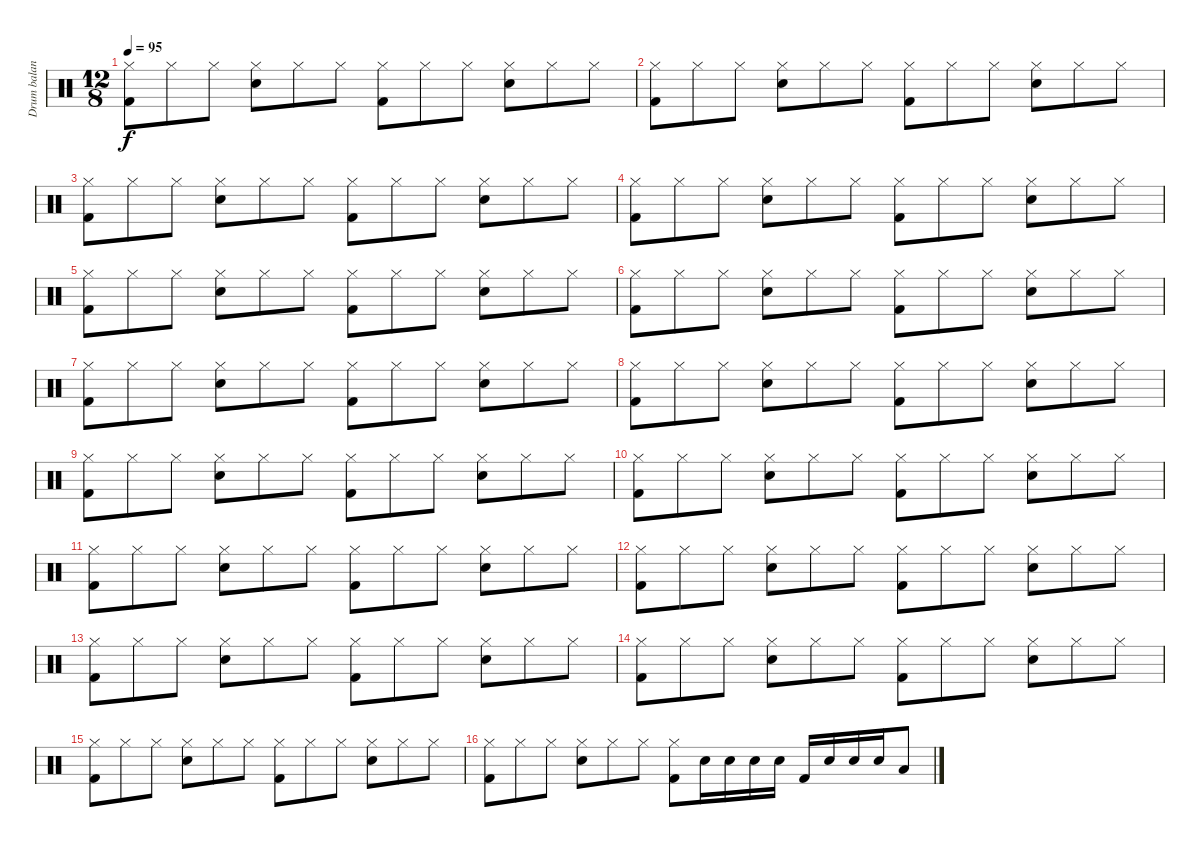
\track ("Drum balance help" "Drum balan") {instrument percussion}
\staff {score}
\articulation defaults
\ts (12 8)
\tempo 95
\clef neutral
\ks c
("Kick (hit) 2" "Hi-Hat (closed)").8{dy f} "Hi-Hat (closed)".8 "Hi-Hat (closed)".8 ("Snare (hit) 2" "Hi-Hat (closed)").8 "Hi-Hat (closed)".8 "Hi-Hat (closed)".8 ("Kick (hit) 2" "Hi-Hat (closed)").8 "Hi-Hat (closed)".8 "Hi-Hat (closed)".8 ("Snare (hit) 2" "Hi-Hat (closed)").8 "Hi-Hat (closed)".8 "Hi-Hat (closed)".8 |
("Kick (hit) 2" "Hi-Hat (closed)").8 "Hi-Hat (closed)".8 "Hi-Hat (closed)".8 ("Snare (hit) 2" "Hi-Hat (closed)").8 "Hi-Hat (closed)".8 "Hi-Hat (closed)".8 ("Kick (hit) 2" "Hi-Hat (closed)").8 "Hi-Hat (closed)".8 "Hi-Hat (closed)".8 ("Snare (hit) 2" "Hi-Hat (closed)").8 "Hi-Hat (closed)".8 "Hi-Hat (closed)".8 |
("Kick (hit) 2" "Hi-Hat (closed)").8 "Hi-Hat (closed)".8 "Hi-Hat (closed)".8 ("Snare (hit) 2" "Hi-Hat (closed)").8 "Hi-Hat (closed)".8 "Hi-Hat (closed)".8 ("Kick (hit) 2" "Hi-Hat (closed)").8 "Hi-Hat (closed)".8 "Hi-Hat (closed)".8 ("Snare (hit) 2" "Hi-Hat (closed)").8 "Hi-Hat (closed)".8 "Hi-Hat (closed)".8 |
("Kick (hit) 2" "Hi-Hat (closed)").8 "Hi-Hat (closed)".8 "Hi-Hat (closed)".8 ("Snare (hit) 2" "Hi-Hat (closed)").8 "Hi-Hat (closed)".8 "Hi-Hat (closed)".8 ("Kick (hit) 2" "Hi-Hat (closed)").8 "Hi-Hat (closed)".8 "Hi-Hat (closed)".8 ("Snare (hit) 2" "Hi-Hat (closed)").8 "Hi-Hat (closed)".8 "Hi-Hat (closed)".8 |
("Kick (hit) 2" "Hi-Hat (closed)").8 "Hi-Hat (closed)".8 "Hi-Hat (closed)".8 ("Snare (hit) 2" "Hi-Hat (closed)").8 "Hi-Hat (closed)".8 "Hi-Hat (closed)".8 ("Kick (hit) 2" "Hi-Hat (closed)").8 "Hi-Hat (closed)".8 "Hi-Hat (closed)".8 ("Snare (hit) 2" "Hi-Hat (closed)").8 "Hi-Hat (closed)".8 "Hi-Hat (closed)".8 |
("Kick (hit) 2" "Hi-Hat (closed)").8 "Hi-Hat (closed)".8 "Hi-Hat (closed)".8 ("Snare (hit) 2" "Hi-Hat (closed)").8 "Hi-Hat (closed)".8 "Hi-Hat (closed)".8 ("Kick (hit) 2" "Hi-Hat (closed)").8 "Hi-Hat (closed)".8 "Hi-Hat (closed)".8 ("Snare (hit) 2" "Hi-Hat (closed)").8 "Hi-Hat (closed)".8 "Hi-Hat (closed)".8 |
("Kick (hit) 2" "Hi-Hat (closed)").8 "Hi-Hat (closed)".8 "Hi-Hat (closed)".8 ("Snare (hit) 2" "Hi-Hat (closed)").8 "Hi-Hat (closed)".8 "Hi-Hat (closed)".8 ("Kick (hit) 2" "Hi-Hat (closed)").8 "Hi-Hat (closed)".8 "Hi-Hat (closed)".8 ("Snare (hit) 2" "Hi-Hat (closed)").8 "Hi-Hat (closed)".8 "Hi-Hat (closed)".8 |
("Kick (hit) 2" "Hi-Hat (closed)").8 "Hi-Hat (closed)".8 "Hi-Hat (closed)".8 ("Snare (hit) 2" "Hi-Hat (closed)").8 "Hi-Hat (closed)".8 "Hi-Hat (closed)".8 ("Kick (hit) 2" "Hi-Hat (closed)").8 "Hi-Hat (closed)".8 "Hi-Hat (closed)".8 ("Snare (hit) 2" "Hi-Hat (closed)").8 "Hi-Hat (closed)".8 "Hi-Hat (closed)".8 |
("Kick (hit) 2" "Hi-Hat (closed)").8 "Hi-Hat (closed)".8 "Hi-Hat (closed)".8 ("Snare (hit) 2" "Hi-Hat (closed)").8 "Hi-Hat (closed)".8 "Hi-Hat (closed)".8 ("Kick (hit) 2" "Hi-Hat (closed)").8 "Hi-Hat (closed)".8 "Hi-Hat (closed)".8 ("Snare (hit) 2" "Hi-Hat (closed)").8 "Hi-Hat (closed)".8 "Hi-Hat (closed)".8 |
("Kick (hit) 2" "Hi-Hat (closed)").8 "Hi-Hat (closed)".8 "Hi-Hat (closed)".8 ("Snare (hit) 2" "Hi-Hat (closed)").8 "Hi-Hat (closed)".8 "Hi-Hat (closed)".8 ("Kick (hit) 2" "Hi-Hat (closed)").8 "Hi-Hat (closed)".8 "Hi-Hat (closed)".8 ("Snare (hit) 2" "Hi-Hat (closed)").8 "Hi-Hat (closed)".8 "Hi-Hat (closed)".8 |
("Kick (hit) 2" "Hi-Hat (closed)").8 "Hi-Hat (closed)".8 "Hi-Hat (closed)".8 ("Snare (hit) 2" "Hi-Hat (closed)").8 "Hi-Hat (closed)".8 "Hi-Hat (closed)".8 ("Kick (hit) 2" "Hi-Hat (closed)").8 "Hi-Hat (closed)".8 "Hi-Hat (closed)".8 ("Snare (hit) 2" "Hi-Hat (closed)").8 "Hi-Hat (closed)".8 "Hi-Hat (closed)".8 |
("Kick (hit) 2" "Hi-Hat (closed)").8 "Hi-Hat (closed)".8 "Hi-Hat (closed)".8 ("Snare (hit) 2" "Hi-Hat (closed)").8 "Hi-Hat (closed)".8 "Hi-Hat (closed)".8 ("Kick (hit) 2" "Hi-Hat (closed)").8 "Hi-Hat (closed)".8 "Hi-Hat (closed)".8 ("Snare (hit) 2" "Hi-Hat (closed)").8 "Hi-Hat (closed)".8 "Hi-Hat (closed)".8 |
("Kick (hit) 2" "Hi-Hat (closed)").8 "Hi-Hat (closed)".8 "Hi-Hat (closed)".8 ("Snare (hit) 2" "Hi-Hat (closed)").8 "Hi-Hat (closed)".8 "Hi-Hat (closed)".8 ("Kick (hit) 2" "Hi-Hat (closed)").8 "Hi-Hat (closed)".8 "Hi-Hat (closed)".8 ("Snare (hit) 2" "Hi-Hat (closed)").8 "Hi-Hat (closed)".8 "Hi-Hat (closed)".8 |
("Kick (hit) 2" "Hi-Hat (closed)").8 "Hi-Hat (closed)".8 "Hi-Hat (closed)".8 ("Snare (hit) 2" "Hi-Hat (closed)").8 "Hi-Hat (closed)".8 "Hi-Hat (closed)".8 ("Kick (hit) 2" "Hi-Hat (closed)").8 "Hi-Hat (closed)".8 "Hi-Hat (closed)".8 ("Snare (hit) 2" "Hi-Hat (closed)").8 "Hi-Hat (closed)".8 "Hi-Hat (closed)".8 |
("Kick (hit) 2" "Hi-Hat (closed)").8 "Hi-Hat (closed)".8 "Hi-Hat (closed)".8 ("Snare (hit) 2" "Hi-Hat (closed)").8 "Hi-Hat (closed)".8 "Hi-Hat (closed)".8 ("Kick (hit) 2" "Hi-Hat (closed)").8 "Hi-Hat (closed)".8 "Hi-Hat (closed)".8 ("Snare (hit) 2" "Hi-Hat (closed)").8 "Hi-Hat (closed)".8 "Hi-Hat (closed)".8 |
("Kick (hit) 2" "Hi-Hat (closed)").8 "Hi-Hat (closed)".8 "Hi-Hat (closed)".8 ("Snare (hit) 2" "Hi-Hat (closed)").8 "Hi-Hat (closed)".8 "Hi-Hat (closed)".8 ("Kick (hit) 2" "Hi-Hat (closed)").8 "Snare (hit) 2".16 "Snare (hit) 2".16 "Snare (hit) 2".16 "Snare (hit) 2".16 "Kick (hit) 2".16 "Snare (hit) 2".16 "Snare (hit) 2".16 "Snare (hit) 2".16 "Low Tom (hit)".8
